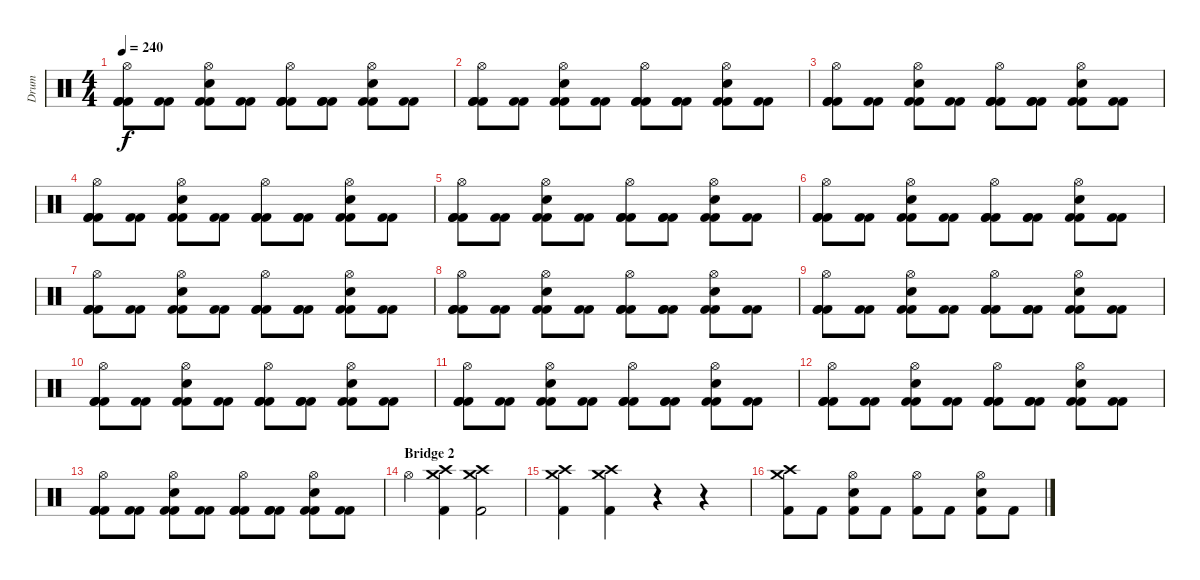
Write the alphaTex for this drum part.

\track ("Drum" "Drum") {instrument percussion}
\staff {score}
\articulation defaults
\ts (4 4)
\tempo 240
\clef neutral
\ks c
("Hi-Hat (open)" "Kick (hit) 2" "Kick (hit) 2" "Kick (hit) 2").8{dy f} ("Kick (hit) 2" "Kick (hit) 2").8 ("Hi-Hat (open)" "Electric Snare (hit)" "Kick (hit) 2" "Kick (hit) 2").8 ("Kick (hit) 2" "Kick (hit) 2").8 ("Hi-Hat (open)" "Kick (hit) 2" "Kick (hit) 2" "Kick (hit) 2").8 ("Kick (hit) 2" "Kick (hit) 2" "Kick (hit) 2").8 ("Hi-Hat (open)" "Electric Snare (hit)" "Kick (hit) 2" "Kick (hit) 2").8 ("Kick (hit) 2" "Kick (hit) 2").8 |
("Hi-Hat (open)" "Kick (hit) 2" "Kick (hit) 2" "Kick (hit) 2").8 ("Kick (hit) 2" "Kick (hit) 2").8 ("Hi-Hat (open)" "Electric Snare (hit)" "Kick (hit) 2" "Kick (hit) 2").8 ("Kick (hit) 2" "Kick (hit) 2").8 ("Hi-Hat (open)" "Kick (hit) 2" "Kick (hit) 2" "Kick (hit) 2").8 ("Kick (hit) 2" "Kick (hit) 2" "Kick (hit) 2").8 ("Hi-Hat (open)" "Electric Snare (hit)" "Kick (hit) 2" "Kick (hit) 2").8 ("Kick (hit) 2" "Kick (hit) 2").8 |
("Hi-Hat (open)" "Kick (hit) 2" "Kick (hit) 2" "Kick (hit) 2").8 ("Kick (hit) 2" "Kick (hit) 2").8 ("Hi-Hat (open)" "Electric Snare (hit)" "Kick (hit) 2" "Kick (hit) 2").8 ("Kick (hit) 2" "Kick (hit) 2").8 ("Hi-Hat (open)" "Kick (hit) 2" "Kick (hit) 2" "Kick (hit) 2").8 ("Kick (hit) 2" "Kick (hit) 2" "Kick (hit) 2").8 ("Hi-Hat (open)" "Electric Snare (hit)" "Kick (hit) 2" "Kick (hit) 2").8 ("Kick (hit) 2" "Kick (hit) 2").8 |
("Hi-Hat (open)" "Kick (hit) 2" "Kick (hit) 2" "Kick (hit) 2").8 ("Kick (hit) 2" "Kick (hit) 2").8 ("Hi-Hat (open)" "Electric Snare (hit)" "Kick (hit) 2" "Kick (hit) 2").8 ("Kick (hit) 2" "Kick (hit) 2").8 ("Hi-Hat (open)" "Kick (hit) 2" "Kick (hit) 2" "Kick (hit) 2").8 ("Kick (hit) 2" "Kick (hit) 2" "Kick (hit) 2").8 ("Hi-Hat (open)" "Electric Snare (hit)" "Kick (hit) 2" "Kick (hit) 2").8 ("Kick (hit) 2" "Kick (hit) 2").8 |
("Hi-Hat (open)" "Kick (hit) 2" "Kick (hit) 2" "Kick (hit) 2").8 ("Kick (hit) 2" "Kick (hit) 2").8 ("Hi-Hat (open)" "Electric Snare (hit)" "Kick (hit) 2" "Kick (hit) 2").8 ("Kick (hit) 2" "Kick (hit) 2").8 ("Hi-Hat (open)" "Kick (hit) 2" "Kick (hit) 2" "Kick (hit) 2").8 ("Kick (hit) 2" "Kick (hit) 2" "Kick (hit) 2").8 ("Hi-Hat (open)" "Electric Snare (hit)" "Kick (hit) 2" "Kick (hit) 2").8 ("Kick (hit) 2" "Kick (hit) 2").8 |
("Hi-Hat (open)" "Kick (hit) 2" "Kick (hit) 2" "Kick (hit) 2").8 ("Kick (hit) 2" "Kick (hit) 2").8 ("Hi-Hat (open)" "Electric Snare (hit)" "Kick (hit) 2" "Kick (hit) 2").8 ("Kick (hit) 2" "Kick (hit) 2").8 ("Hi-Hat (open)" "Kick (hit) 2" "Kick (hit) 2" "Kick (hit) 2").8 ("Kick (hit) 2" "Kick (hit) 2" "Kick (hit) 2").8 ("Hi-Hat (open)" "Electric Snare (hit)" "Kick (hit) 2" "Kick (hit) 2").8 ("Kick (hit) 2" "Kick (hit) 2").8 |
("Hi-Hat (open)" "Kick (hit) 2" "Kick (hit) 2" "Kick (hit) 2").8 ("Kick (hit) 2" "Kick (hit) 2").8 ("Hi-Hat (open)" "Electric Snare (hit)" "Kick (hit) 2" "Kick (hit) 2").8 ("Kick (hit) 2" "Kick (hit) 2").8 ("Hi-Hat (open)" "Kick (hit) 2" "Kick (hit) 2" "Kick (hit) 2").8 ("Kick (hit) 2" "Kick (hit) 2" "Kick (hit) 2").8 ("Hi-Hat (open)" "Electric Snare (hit)" "Kick (hit) 2" "Kick (hit) 2").8 ("Kick (hit) 2" "Kick (hit) 2").8 |
("Hi-Hat (open)" "Kick (hit) 2" "Kick (hit) 2" "Kick (hit) 2").8 ("Kick (hit) 2" "Kick (hit) 2").8 ("Hi-Hat (open)" "Electric Snare (hit)" "Kick (hit) 2" "Kick (hit) 2").8 ("Kick (hit) 2" "Kick (hit) 2").8 ("Hi-Hat (open)" "Kick (hit) 2" "Kick (hit) 2" "Kick (hit) 2").8 ("Kick (hit) 2" "Kick (hit) 2" "Kick (hit) 2").8 ("Hi-Hat (open)" "Electric Snare (hit)" "Kick (hit) 2" "Kick (hit) 2").8 ("Kick (hit) 2" "Kick (hit) 2").8 |
("Hi-Hat (open)" "Kick (hit) 2" "Kick (hit) 2" "Kick (hit) 2").8 ("Kick (hit) 2" "Kick (hit) 2").8 ("Hi-Hat (open)" "Electric Snare (hit)" "Kick (hit) 2" "Kick (hit) 2").8 ("Kick (hit) 2" "Kick (hit) 2").8 ("Hi-Hat (open)" "Kick (hit) 2" "Kick (hit) 2" "Kick (hit) 2").8 ("Kick (hit) 2" "Kick (hit) 2" "Kick (hit) 2").8 ("Hi-Hat (open)" "Electric Snare (hit)" "Kick (hit) 2" "Kick (hit) 2").8 ("Kick (hit) 2" "Kick (hit) 2").8 |
("Hi-Hat (open)" "Kick (hit) 2" "Kick (hit) 2" "Kick (hit) 2").8 ("Kick (hit) 2" "Kick (hit) 2").8 ("Hi-Hat (open)" "Electric Snare (hit)" "Kick (hit) 2" "Kick (hit) 2").8 ("Kick (hit) 2" "Kick (hit) 2").8 ("Hi-Hat (open)" "Kick (hit) 2" "Kick (hit) 2" "Kick (hit) 2").8 ("Kick (hit) 2" "Kick (hit) 2" "Kick (hit) 2").8 ("Hi-Hat (open)" "Electric Snare (hit)" "Kick (hit) 2" "Kick (hit) 2").8 ("Kick (hit) 2" "Kick (hit) 2").8 |
("Hi-Hat (open)" "Kick (hit) 2" "Kick (hit) 2" "Kick (hit) 2").8 ("Kick (hit) 2" "Kick (hit) 2").8 ("Hi-Hat (open)" "Electric Snare (hit)" "Kick (hit) 2" "Kick (hit) 2").8 ("Kick (hit) 2" "Kick (hit) 2").8 ("Hi-Hat (open)" "Kick (hit) 2" "Kick (hit) 2" "Kick (hit) 2").8 ("Kick (hit) 2" "Kick (hit) 2" "Kick (hit) 2").8 ("Hi-Hat (open)" "Electric Snare (hit)" "Kick (hit) 2" "Kick (hit) 2").8 ("Kick (hit) 2" "Kick (hit) 2").8 |
("Hi-Hat (open)" "Kick (hit) 2" "Kick (hit) 2" "Kick (hit) 2").8 ("Kick (hit) 2" "Kick (hit) 2").8 ("Hi-Hat (open)" "Electric Snare (hit)" "Kick (hit) 2" "Kick (hit) 2").8 ("Kick (hit) 2" "Kick (hit) 2").8 ("Hi-Hat (open)" "Kick (hit) 2" "Kick (hit) 2" "Kick (hit) 2").8 ("Kick (hit) 2" "Kick (hit) 2" "Kick (hit) 2").8 ("Hi-Hat (open)" "Electric Snare (hit)" "Kick (hit) 2" "Kick (hit) 2").8 ("Kick (hit) 2" "Kick (hit) 2").8 |
("Hi-Hat (open)" "Kick (hit) 2" "Kick (hit) 2" "Kick (hit) 2").8 ("Kick (hit) 2" "Kick (hit) 2").8 ("Hi-Hat (open)" "Electric Snare (hit)" "Kick (hit) 2" "Kick (hit) 2").8 ("Kick (hit) 2" "Kick (hit) 2").8 ("Hi-Hat (open)" "Kick (hit) 2" "Kick (hit) 2" "Kick (hit) 2").8 ("Kick (hit) 2" "Kick (hit) 2" "Kick (hit) 2").8 ("Hi-Hat (open)" "Electric Snare (hit)" "Kick (hit) 2" "Kick (hit) 2").8 ("Kick (hit) 2" "Kick (hit) 2").8 |
\section ("" "Bridge 2")
"Hi-Hat (open)".4 ("Crash high (hit)" "Kick (hit) 2" "Crash medium (hit)").4 ("Crash high (hit)" "Kick (hit) 2" "Crash medium (hit)").2 |
("Crash high (hit)" "Kick (hit) 2" "Crash medium (hit)").4 ("Crash high (hit)" "Kick (hit) 2" "Crash medium (hit)").4 r.4 r.4 |
("Crash high (hit)" "Kick (hit) 2" "Crash medium (hit)").8 "Kick (hit) 2".8 ("Hi-Hat (open)" "Kick (hit) 2" "Electric Snare (hit)").8 "Kick (hit) 2".8 ("Hi-Hat (open)" "Kick (hit) 2").8 "Kick (hit) 2".8 ("Hi-Hat (open)" "Kick (hit) 2" "Electric Snare (hit)").8 "Kick (hit) 2".8
